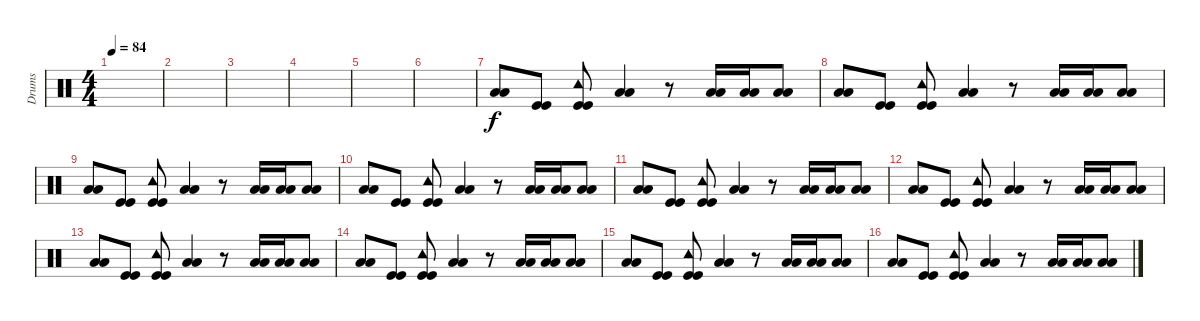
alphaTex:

\track ("Drums" "Drums") {instrument percussion}
\staff {score}
\articulation defaults
\ts (4 4)
\tempo 84
\clef neutral
\ks c
|
|
|
|
|
|
("Low Floor Tom (hit)" "Low Floor Tom (hit)").8 ("Kick (hit)" "Kick (hit)").8 ("Kick (hit)" "Kick (hit)" "Tambourine (hit)").8 ("Low Tom (hit)" "Low Tom (hit)").4 r.8 ("Low Tom (hit)" "Low Tom (hit)").16 ("Low Tom (hit)" "Low Tom (hit)").16 ("Low Floor Tom (hit)" "Low Floor Tom (hit)").8 |
("Low Floor Tom (hit)" "Low Floor Tom (hit)").8 ("Kick (hit)" "Kick (hit)").8 ("Kick (hit)" "Kick (hit)" "Tambourine (hit)").8 ("Low Tom (hit)" "Low Tom (hit)").4 r.8 ("Low Tom (hit)" "Low Tom (hit)").16 ("Low Tom (hit)" "Low Tom (hit)").16 ("Low Floor Tom (hit)" "Low Floor Tom (hit)").8 |
("Low Floor Tom (hit)" "Low Floor Tom (hit)").8 ("Kick (hit)" "Kick (hit)").8 ("Kick (hit)" "Kick (hit)" "Tambourine (hit)").8 ("Low Tom (hit)" "Low Tom (hit)").4 r.8 ("Low Tom (hit)" "Low Tom (hit)").16 ("Low Tom (hit)" "Low Tom (hit)").16 ("Low Floor Tom (hit)" "Low Floor Tom (hit)").8 |
("Low Floor Tom (hit)" "Low Floor Tom (hit)").8 ("Kick (hit)" "Kick (hit)").8 ("Kick (hit)" "Kick (hit)" "Tambourine (hit)").8 ("Low Tom (hit)" "Low Tom (hit)").4 r.8 ("Low Tom (hit)" "Low Tom (hit)").16 ("Low Tom (hit)" "Low Tom (hit)").16 ("Low Floor Tom (hit)" "Low Floor Tom (hit)").8 |
("Low Floor Tom (hit)" "Low Floor Tom (hit)").8 ("Kick (hit)" "Kick (hit)").8 ("Kick (hit)" "Kick (hit)" "Tambourine (hit)").8 ("Low Tom (hit)" "Low Tom (hit)").4 r.8 ("Low Tom (hit)" "Low Tom (hit)").16 ("Low Tom (hit)" "Low Tom (hit)").16 ("Low Floor Tom (hit)" "Low Floor Tom (hit)").8 |
("Low Floor Tom (hit)" "Low Floor Tom (hit)").8 ("Kick (hit)" "Kick (hit)").8 ("Kick (hit)" "Kick (hit)" "Tambourine (hit)").8 ("Low Tom (hit)" "Low Tom (hit)").4 r.8 ("Low Tom (hit)" "Low Tom (hit)").16 ("Low Tom (hit)" "Low Tom (hit)").16 ("Low Floor Tom (hit)" "Low Floor Tom (hit)").8 |
("Low Floor Tom (hit)" "Low Floor Tom (hit)").8 ("Kick (hit)" "Kick (hit)").8 ("Kick (hit)" "Kick (hit)" "Tambourine (hit)").8 ("Low Tom (hit)" "Low Tom (hit)").4 r.8 ("Low Tom (hit)" "Low Tom (hit)").16 ("Low Tom (hit)" "Low Tom (hit)").16 ("Low Floor Tom (hit)" "Low Floor Tom (hit)").8 |
("Low Floor Tom (hit)" "Low Floor Tom (hit)").8 ("Kick (hit)" "Kick (hit)").8 ("Kick (hit)" "Kick (hit)" "Tambourine (hit)").8 ("Low Tom (hit)" "Low Tom (hit)").4 r.8 ("Low Tom (hit)" "Low Tom (hit)").16 ("Low Tom (hit)" "Low Tom (hit)").16 ("Low Floor Tom (hit)" "Low Floor Tom (hit)").8 |
("Low Floor Tom (hit)" "Low Floor Tom (hit)").8 ("Kick (hit)" "Kick (hit)").8 ("Kick (hit)" "Kick (hit)" "Tambourine (hit)").8 ("Low Tom (hit)" "Low Tom (hit)").4 r.8 ("Low Tom (hit)" "Low Tom (hit)").16 ("Low Tom (hit)" "Low Tom (hit)").16 ("Low Floor Tom (hit)" "Low Floor Tom (hit)").8 |
("Low Floor Tom (hit)" "Low Floor Tom (hit)").8 ("Kick (hit)" "Kick (hit)").8 ("Kick (hit)" "Kick (hit)" "Tambourine (hit)").8 ("Low Tom (hit)" "Low Tom (hit)").4 r.8 ("Low Tom (hit)" "Low Tom (hit)").16 ("Low Tom (hit)" "Low Tom (hit)").16 ("Low Floor Tom (hit)" "Low Floor Tom (hit)").8
